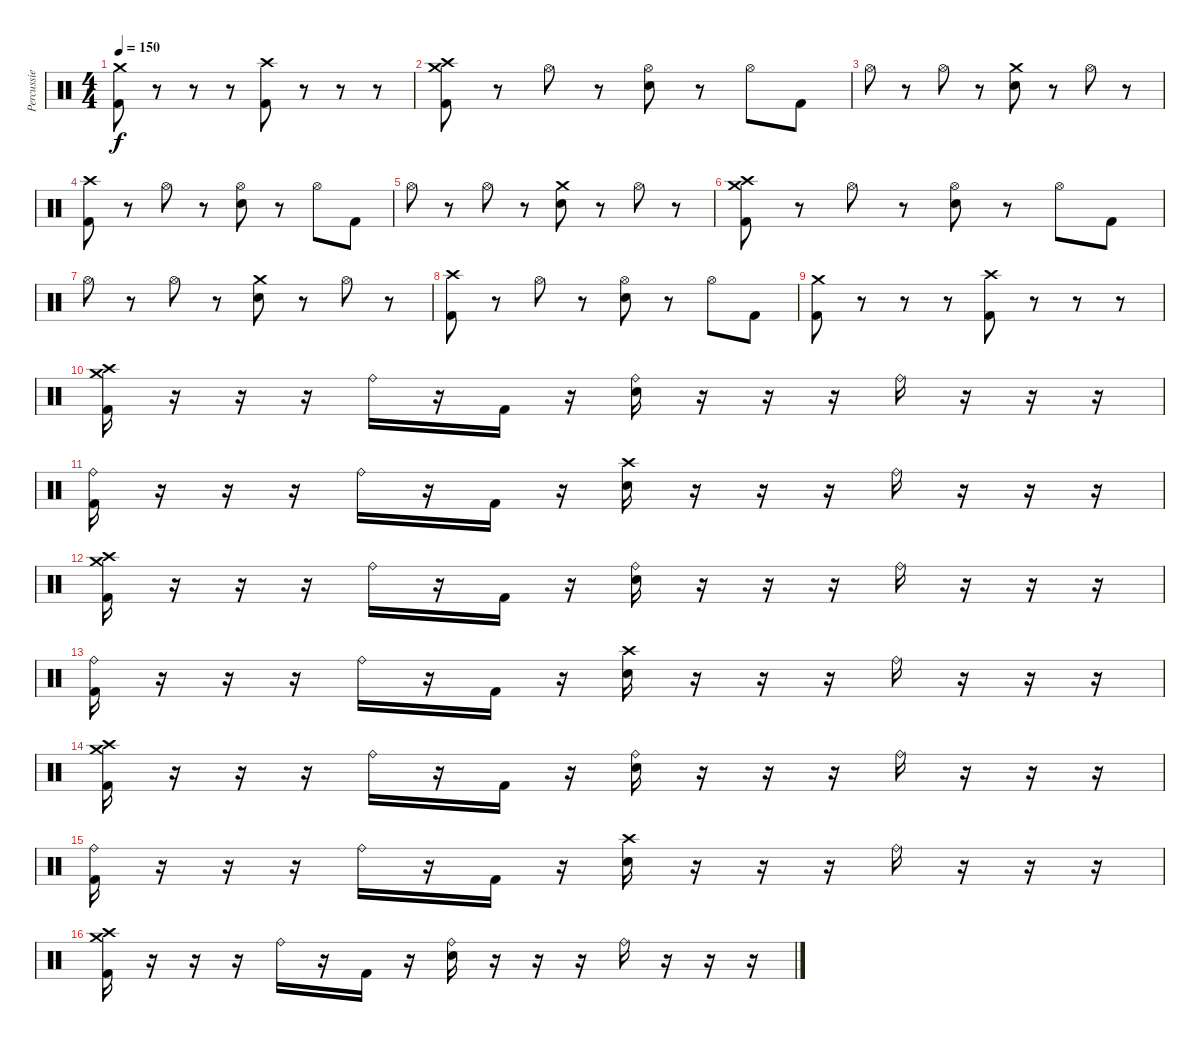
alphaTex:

\track ("Percussie" "Percussie") {instrument percussion}
\staff {score}
\articulation defaults
\ts (4 4)
\tempo 150
\clef neutral
\ks c
("Crash medium (hit)" "Kick (hit) 2").8{dy f} r.8 r.8 r.8 ("Crash high (hit)" "Kick (hit) 2").8 r.8 r.8 r.8 |
("Crash high (hit)" "Crash medium (hit)" "Kick (hit) 2").8 r.8 "Hi-Hat (open)".8 r.8 ("Hi-Hat (open)" "Electric Snare (hit)").8 r.8 "Hi-Hat (open)".8 "Kick (hit) 2".8 |
"Hi-Hat (open)".8 r.8 "Hi-Hat (open)".8 r.8 ("Crash medium (hit)" "Electric Snare (hit)").8 r.8 "Hi-Hat (open)".8 r.8 |
("Crash high (hit)" "Kick (hit) 2").8 r.8 "Hi-Hat (open)".8 r.8 ("Hi-Hat (open)" "Electric Snare (hit)").8 r.8 "Hi-Hat (open)".8 "Kick (hit) 2".8 |
"Hi-Hat (open)".8 r.8 "Hi-Hat (open)".8 r.8 ("Crash medium (hit)" "Electric Snare (hit)").8 r.8 "Hi-Hat (open)".8 r.8 |
("Crash high (hit)" "Crash medium (hit)" "Kick (hit) 2").8 r.8 "Hi-Hat (open)".8 r.8 ("Hi-Hat (open)" "Electric Snare (hit)").8 r.8 "Hi-Hat (open)".8 "Kick (hit) 2".8 |
"Hi-Hat (open)".8 r.8 "Hi-Hat (open)".8 r.8 ("Crash medium (hit)" "Electric Snare (hit)").8 r.8 "Hi-Hat (open)".8 r.8 |
("Crash high (hit)" "Kick (hit) 2").8 r.8 "Hi-Hat (open)".8 r.8 ("Hi-Hat (open)" "Electric Snare (hit)").8 r.8 "Hi-Hat (open)".8 "Kick (hit) 2".8 |
("Crash medium (hit)" "Kick (hit) 2").8 r.8 r.8 r.8 ("Crash high (hit)" "Kick (hit) 2").8 r.8 r.8 r.8 |
("Crash medium (hit)" "Crash high (hit)" "Kick (hit) 2").16 r.16 r.16 r.16 "Ride (bell)".16 r.16 "Kick (hit) 2".16 r.16 ("Ride (bell)" "Electric Snare (hit)").16 r.16 r.16 r.16 "Ride (bell)".16 r.16 r.16 r.16 |
("Ride (bell)" "Kick (hit) 2").16 r.16 r.16 r.16 "Ride (bell)".16 r.16 "Kick (hit) 2".16 r.16 ("Crash high (hit)" "Electric Snare (hit)").16 r.16 r.16 r.16 "Ride (bell)".16 r.16 r.16 r.16 |
("Crash medium (hit)" "Crash high (hit)" "Kick (hit) 2").16 r.16 r.16 r.16 "Ride (bell)".16 r.16 "Kick (hit) 2".16 r.16 ("Ride (bell)" "Electric Snare (hit)").16 r.16 r.16 r.16 "Ride (bell)".16 r.16 r.16 r.16 |
("Ride (bell)" "Kick (hit) 2").16 r.16 r.16 r.16 "Ride (bell)".16 r.16 "Kick (hit) 2".16 r.16 ("Crash high (hit)" "Electric Snare (hit)").16 r.16 r.16 r.16 "Ride (bell)".16 r.16 r.16 r.16 |
("Crash medium (hit)" "Crash high (hit)" "Kick (hit) 2").16 r.16 r.16 r.16 "Ride (bell)".16 r.16 "Kick (hit) 2".16 r.16 ("Ride (bell)" "Electric Snare (hit)").16 r.16 r.16 r.16 "Ride (bell)".16 r.16 r.16 r.16 |
("Ride (bell)" "Kick (hit) 2").16 r.16 r.16 r.16 "Ride (bell)".16 r.16 "Kick (hit) 2".16 r.16 ("Crash high (hit)" "Electric Snare (hit)").16 r.16 r.16 r.16 "Ride (bell)".16 r.16 r.16 r.16 |
("Crash medium (hit)" "Crash high (hit)" "Kick (hit) 2").16 r.16 r.16 r.16 "Ride (bell)".16 r.16 "Kick (hit) 2".16 r.16 ("Ride (bell)" "Electric Snare (hit)").16 r.16 r.16 r.16 "Ride (bell)".16 r.16 r.16 r.16
